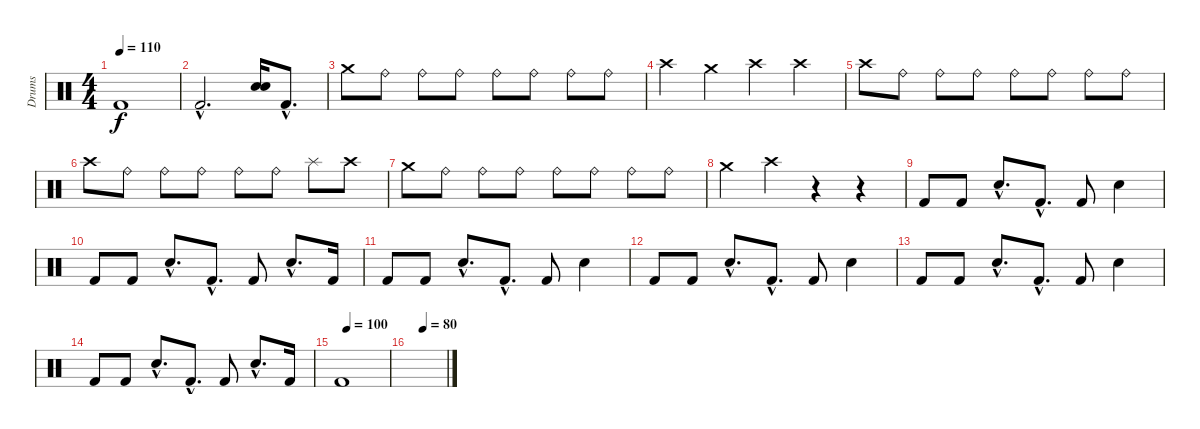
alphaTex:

\track ("Drums" "Drums") {instrument percussion}
\staff {score}
\articulation defaults
\ts (4 4)
\tempo 110
\clef neutral
\ks c "Kick (hit) 2".1{dy f}
|
"Kick (hit) 2"{hac}.2{d} ("Electric Snare (hit)" "Electric Snare (hit)").16 "Kick (hit) 2"{hac}.8{d} |
"Crash medium (hit)".8 "Ride (bell)".8 "Ride (bell)".8 "Ride (bell)".8 "Ride (bell)".8 "Ride (bell)".8 "Ride (bell)".8 "Ride (bell)".8 |
"Crash high (hit)".4 "Crash medium (hit)".4 "Crash high (hit)".4 "Crash high (hit)".4 |
"Crash high (hit)".8 "Ride (bell)".8 "Ride (bell)".8 "Ride (bell)".8 "Ride (bell)".8 "Ride (bell)".8 "Ride (bell)".8 "Ride (bell)".8 |
"Crash high (hit)".8 "Ride (bell)".8 "Ride (bell)".8 "Ride (bell)".8 "Ride (bell)".8 "Ride (bell)".8 "Splash (hit)".8 "Crash high (hit)".8 |
"Crash medium (hit)".8 "Ride (bell)".8 "Ride (bell)".8 "Ride (bell)".8 "Ride (bell)".8 "Ride (bell)".8 "Ride (bell)".8 "Ride (bell)".8 |
"Crash medium (hit)".4 "Crash high (hit)".4 r.4 r.4 |
"Kick (hit) 2".8 "Kick (hit) 2".8 "Electric Snare (hit)"{hac}.8{d} "Kick (hit) 2"{hac}.8{d} "Kick (hit) 2".8 "Electric Snare (hit)".4 |
"Kick (hit) 2".8 "Kick (hit) 2".8 "Electric Snare (hit)"{hac}.8{d} "Kick (hit) 2"{hac}.8{d} "Kick (hit) 2".8 "Electric Snare (hit)"{hac}.8{d} "Kick (hit) 2".16 |
"Kick (hit) 2".8 "Kick (hit) 2".8 "Electric Snare (hit)"{hac}.8{d} "Kick (hit) 2"{hac}.8{d} "Kick (hit) 2".8 "Electric Snare (hit)".4 |
"Kick (hit) 2".8 "Kick (hit) 2".8 "Electric Snare (hit)"{hac}.8{d} "Kick (hit) 2"{hac}.8{d} "Kick (hit) 2".8 "Electric Snare (hit)".4 |
"Kick (hit) 2".8 "Kick (hit) 2".8 "Electric Snare (hit)"{hac}.8{d} "Kick (hit) 2"{hac}.8{d} "Kick (hit) 2".8 "Electric Snare (hit)".4 |
"Kick (hit) 2".8 "Kick (hit) 2".8 "Electric Snare (hit)"{hac}.8{d} "Kick (hit) 2"{hac}.8{d} "Kick (hit) 2".8 "Electric Snare (hit)"{hac}.8{d} "Kick (hit) 2".16 |
\tempo (100 0.125)
"Kick (hit) 2".1 |
\tempo (80 0.375)
